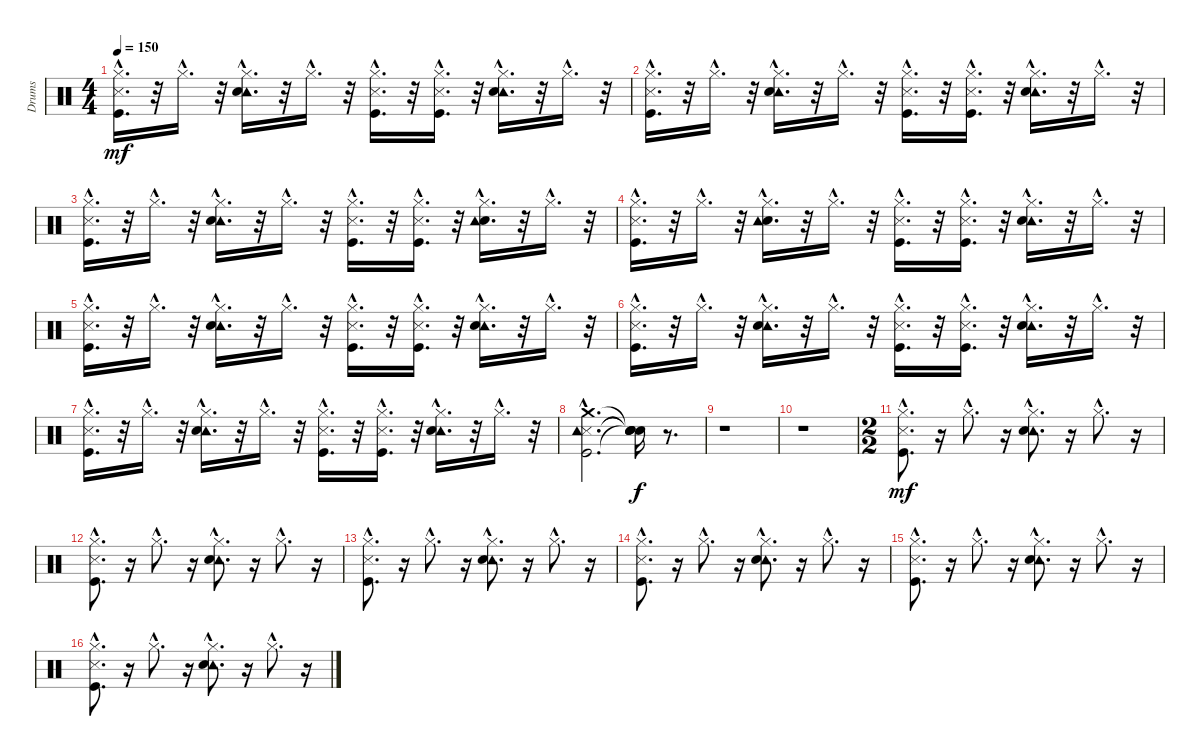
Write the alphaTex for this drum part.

\track ("Drums" "Drums") {instrument percussion}
\staff {score}
\articulation defaults
\ts (4 4)
\tempo 150
\clef neutral
\ks c
("Metronome (hit)"{hac} "Kick (hit)"{hac} "Hi-Hat (closed)"{hac}).16{d dy mf} r.32 "Hi-Hat (closed)"{hac}.16{d} r.32 ("Tambourine (hit)"{hac} "Electric Snare (hit)"{hac} "Hi-Hat (closed)"{hac}).16{d} r.32 "Hi-Hat (closed)"{hac}.16{d} r.32 ("Metronome (hit)"{hac} "Kick (hit)"{hac} "Hi-Hat (closed)"{hac}).16{d} r.32 ("Hi-Hat (closed)"{hac} "Metronome (hit)"{hac} "Kick (hit)"{hac}).16{d} r.32 ("Tambourine (hit)"{hac} "Electric Snare (hit)"{hac} "Hi-Hat (closed)"{hac}).16{d} r.32 "Hi-Hat (closed)"{hac}.16{d} r.32 |
("Metronome (hit)"{hac} "Kick (hit)"{hac} "Hi-Hat (closed)"{hac}).16{d} r.32 "Hi-Hat (closed)"{hac}.16{d} r.32 ("Tambourine (hit)"{hac} "Electric Snare (hit)"{hac} "Hi-Hat (closed)"{hac}).16{d} r.32 "Hi-Hat (closed)"{hac}.16{d} r.32 ("Metronome (hit)"{hac} "Kick (hit)"{hac} "Hi-Hat (closed)"{hac}).16{d} r.32 ("Hi-Hat (closed)"{hac} "Metronome (hit)"{hac} "Kick (hit)"{hac}).16{d} r.32 ("Tambourine (hit)"{hac} "Electric Snare (hit)"{hac} "Hi-Hat (closed)"{hac}).16{d} r.32 "Hi-Hat (closed)"{hac}.16{d} r.32 |
("Metronome (hit)"{hac} "Kick (hit)"{hac} "Hi-Hat (closed)"{hac}).16{d} r.32 "Hi-Hat (closed)"{hac}.16{d} r.32 ("Tambourine (hit)"{hac} "Electric Snare (hit)"{hac} "Hi-Hat (closed)"{hac}).16{d} r.32 "Hi-Hat (closed)"{hac}.16{d} r.32 ("Metronome (hit)"{hac} "Kick (hit)"{hac} "Hi-Hat (closed)"{hac}).16{d} r.32 ("Hi-Hat (closed)"{hac} "Metronome (hit)"{hac} "Kick (hit)"{hac}).16{d} r.32 ("Electric Snare (hit)"{hac} "Tambourine (hit)"{hac} "Hi-Hat (closed)"{hac}).16{d} r.32 "Hi-Hat (closed)"{hac}.16{d} r.32 |
("Metronome (hit)"{hac} "Kick (hit)"{hac} "Hi-Hat (closed)"{hac}).16{d} r.32 "Hi-Hat (closed)"{hac}.16{d} r.32 ("Electric Snare (hit)"{hac} "Hi-Hat (closed)"{hac} "Tambourine (hit)"{hac}).16{d} r.32 "Hi-Hat (closed)"{hac}.16{d} r.32 ("Hi-Hat (closed)"{hac} "Metronome (hit)"{hac} "Kick (hit)"{hac}).16{d} r.32 ("Hi-Hat (closed)"{hac} "Kick (hit)"{hac} "Metronome (hit)"{hac}).16{d} r.32 ("Tambourine (hit)"{hac} "Electric Snare (hit)"{hac} "Hi-Hat (closed)"{hac}).16{d} r.32 "Hi-Hat (closed)"{hac}.16{d} r.32 |
("Metronome (hit)"{hac} "Kick (hit)"{hac} "Hi-Hat (closed)"{hac}).16{d} r.32 "Hi-Hat (closed)"{hac}.16{d} r.32 ("Tambourine (hit)"{hac} "Electric Snare (hit)"{hac} "Hi-Hat (closed)"{hac}).16{d} r.32 "Hi-Hat (closed)"{hac}.16{d} r.32 ("Metronome (hit)"{hac} "Kick (hit)"{hac} "Hi-Hat (closed)"{hac}).16{d} r.32 ("Hi-Hat (closed)"{hac} "Metronome (hit)"{hac} "Kick (hit)"{hac}).16{d} r.32 ("Tambourine (hit)"{hac} "Electric Snare (hit)"{hac} "Hi-Hat (closed)"{hac}).16{d} r.32 "Hi-Hat (closed)"{hac}.16{d} r.32 |
("Metronome (hit)"{hac} "Kick (hit)"{hac} "Hi-Hat (closed)"{hac}).16{d} r.32 "Hi-Hat (closed)"{hac}.16{d} r.32 ("Tambourine (hit)"{hac} "Electric Snare (hit)"{hac} "Hi-Hat (closed)"{hac}).16{d} r.32 "Hi-Hat (closed)"{hac}.16{d} r.32 ("Metronome (hit)"{hac} "Kick (hit)"{hac} "Hi-Hat (closed)"{hac}).16{d} r.32 ("Hi-Hat (closed)"{hac} "Metronome (hit)"{hac} "Kick (hit)"{hac}).16{d} r.32 ("Tambourine (hit)"{hac} "Electric Snare (hit)"{hac} "Hi-Hat (closed)"{hac}).16{d} r.32 "Hi-Hat (closed)"{hac}.16{d} r.32 |
("Metronome (hit)"{hac} "Kick (hit)"{hac} "Hi-Hat (closed)"{hac}).16{d} r.32 "Hi-Hat (closed)"{hac}.16{d} r.32 ("Tambourine (hit)"{hac} "Electric Snare (hit)"{hac} "Hi-Hat (closed)"{hac}).16{d} r.32 "Hi-Hat (closed)"{hac}.16{d} r.32 ("Metronome (hit)"{hac} "Kick (hit)"{hac} "Hi-Hat (closed)"{hac}).16{d} r.32 ("Hi-Hat (closed)"{hac} "Metronome (hit)"{hac} "Kick (hit)"{hac}).16{d} r.32 ("Tambourine (hit)"{hac} "Electric Snare (hit)"{hac} "Hi-Hat (closed)"{hac}).16{d} r.32 "Hi-Hat (closed)"{hac}.16{d} r.32 |
("Kick (hit)"{hac} "Metronome (hit)"{hac} "Crash medium (hit)"{hac} "Tambourine (hit)"{hac}).2{d} ("Snare (hit)"{t} "Snare (hit)"{t} "Snare (hit)"{t} "Snare (hit)"{t}).16{dy f} r.8{d} |
r.1 |
r.1 |
\ts (2 2)
("Hi-Hat (closed)"{hac} "Kick (hit)"{hac} "Metronome (hit)"{hac}).8{d dy mf} r.16 "Hi-Hat (closed)"{hac}.8{d} r.16 ("Hi-Hat (closed)"{hac} "Tambourine (hit)"{hac} "Electric Snare (hit)"{hac}).8{d} r.16 "Hi-Hat (closed)"{hac}.8{d} r.16 |
("Hi-Hat (closed)"{hac} "Kick (hit)"{hac} "Metronome (hit)"{hac}).8{d} r.16 "Hi-Hat (closed)"{hac}.8{d} r.16 ("Hi-Hat (closed)"{hac} "Tambourine (hit)"{hac} "Electric Snare (hit)"{hac}).8{d} r.16 "Hi-Hat (closed)"{hac}.8{d} r.16 |
("Hi-Hat (closed)"{hac} "Kick (hit)"{hac} "Metronome (hit)"{hac}).8{d} r.16 "Hi-Hat (closed)"{hac}.8{d} r.16 ("Hi-Hat (closed)"{hac} "Tambourine (hit)"{hac} "Electric Snare (hit)"{hac}).8{d} r.16 "Hi-Hat (closed)"{hac}.8{d} r.16 |
("Hi-Hat (closed)"{hac} "Kick (hit)"{hac} "Metronome (hit)"{hac}).8{d} r.16 "Hi-Hat (closed)"{hac}.8{d} r.16 ("Hi-Hat (closed)"{hac} "Tambourine (hit)"{hac} "Electric Snare (hit)"{hac}).8{d} r.16 "Hi-Hat (closed)"{hac}.8{d} r.16 |
("Hi-Hat (closed)"{hac} "Kick (hit)"{hac} "Metronome (hit)"{hac}).8{d} r.16 "Hi-Hat (closed)"{hac}.8{d} r.16 ("Hi-Hat (closed)"{hac} "Tambourine (hit)"{hac} "Electric Snare (hit)"{hac}).8{d} r.16 "Hi-Hat (closed)"{hac}.8{d} r.16 |
("Hi-Hat (closed)"{hac} "Kick (hit)"{hac} "Metronome (hit)"{hac}).8{d} r.16 "Hi-Hat (closed)"{hac}.8{d} r.16 ("Hi-Hat (closed)"{hac} "Tambourine (hit)"{hac} "Electric Snare (hit)"{hac}).8{d} r.16 "Hi-Hat (closed)"{hac}.8{d} r.16
